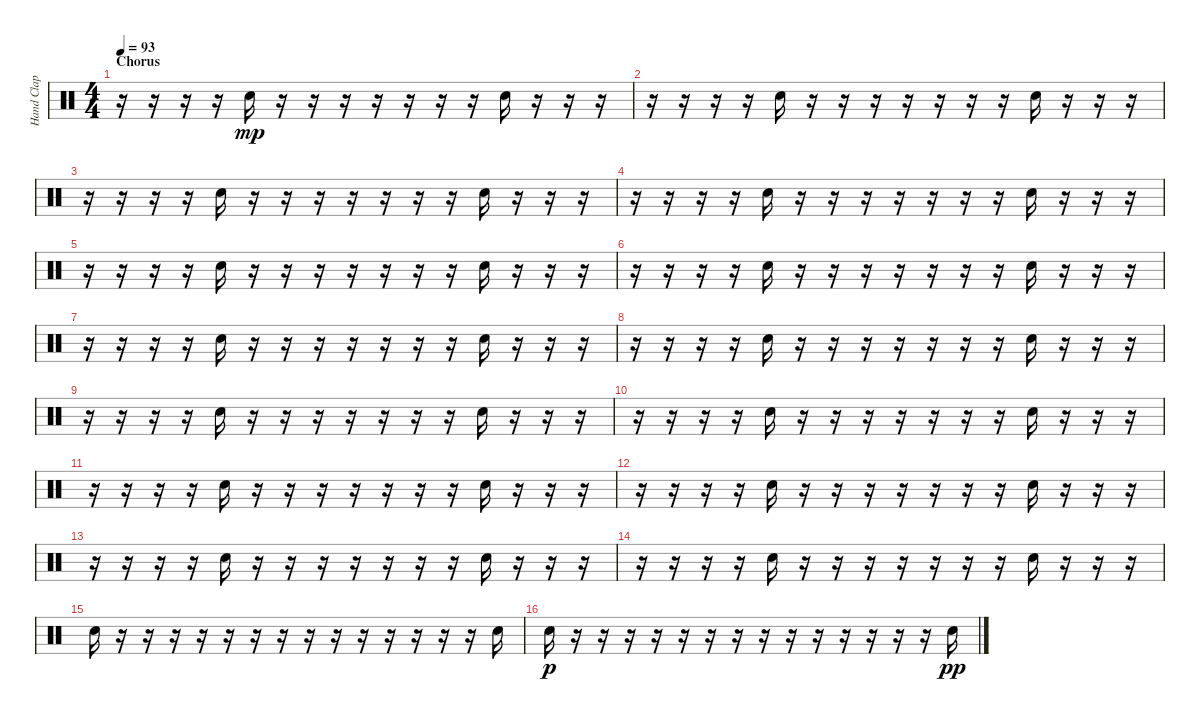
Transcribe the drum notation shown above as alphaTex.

\track ("Hand Clap" "Hand Clap") {instrument percussion}
\staff {score}
\articulation defaults
\ts (4 4)
\section ("" "Chorus")
\tempo 93
\clef neutral
\ks c
r.16{dy p} r.16 r.16 r.16 "Hand Clap (hit)".16{dy mp} r.16 r.16 r.16 r.16 r.16 r.16 r.16 "Hand Clap (hit)".16 r.16 r.16 r.16 |
r.16 r.16 r.16 r.16 "Hand Clap (hit)".16 r.16 r.16 r.16 r.16 r.16 r.16 r.16 "Hand Clap (hit)".16 r.16 r.16 r.16 |
r.16 r.16 r.16 r.16 "Hand Clap (hit)".16 r.16 r.16 r.16 r.16 r.16 r.16 r.16 "Hand Clap (hit)".16 r.16 r.16 r.16 |
r.16 r.16 r.16 r.16 "Hand Clap (hit)".16 r.16 r.16 r.16 r.16 r.16 r.16 r.16 "Hand Clap (hit)".16 r.16 r.16 r.16 |
r.16 r.16 r.16 r.16 "Hand Clap (hit)".16 r.16 r.16 r.16 r.16 r.16 r.16 r.16 "Hand Clap (hit)".16 r.16 r.16 r.16 |
r.16 r.16 r.16 r.16 "Hand Clap (hit)".16 r.16 r.16 r.16 r.16 r.16 r.16 r.16 "Hand Clap (hit)".16 r.16 r.16 r.16 |
r.16 r.16 r.16 r.16 "Hand Clap (hit)".16 r.16 r.16 r.16 r.16 r.16 r.16 r.16 "Hand Clap (hit)".16 r.16 r.16 r.16 |
r.16 r.16 r.16 r.16 "Hand Clap (hit)".16 r.16 r.16 r.16 r.16 r.16 r.16 r.16 "Hand Clap (hit)".16 r.16 r.16 r.16 |
r.16 r.16 r.16 r.16 "Hand Clap (hit)".16 r.16 r.16 r.16 r.16 r.16 r.16 r.16 "Hand Clap (hit)".16 r.16 r.16 r.16 |
r.16 r.16 r.16 r.16 "Hand Clap (hit)".16 r.16 r.16 r.16 r.16 r.16 r.16 r.16 "Hand Clap (hit)".16 r.16 r.16 r.16 |
r.16 r.16 r.16 r.16 "Hand Clap (hit)".16 r.16 r.16 r.16 r.16 r.16 r.16 r.16 "Hand Clap (hit)".16 r.16 r.16 r.16 |
r.16 r.16 r.16 r.16 "Hand Clap (hit)".16 r.16 r.16 r.16 r.16 r.16 r.16 r.16 "Hand Clap (hit)".16 r.16 r.16 r.16 |
r.16 r.16 r.16 r.16 "Hand Clap (hit)".16 r.16 r.16 r.16 r.16 r.16 r.16 r.16 "Hand Clap (hit)".16 r.16 r.16 r.16 |
r.16 r.16 r.16 r.16 "Hand Clap (hit)".16 r.16 r.16 r.16 r.16 r.16 r.16 r.16 "Hand Clap (hit)".16 r.16 r.16 r.16 |
"Hand Clap (hit)".16 r.16 r.16 r.16 r.16 r.16 r.16 r.16 r.16 r.16 r.16 r.16 r.16 r.16 r.16 "Hand Clap (hit)".16 |
"Hand Clap (hit)".16{dy p} r.16 r.16 r.16 r.16 r.16 r.16 r.16 r.16 r.16 r.16 r.16 r.16 r.16 r.16 "Hand Clap (hit)".16{dy pp}
